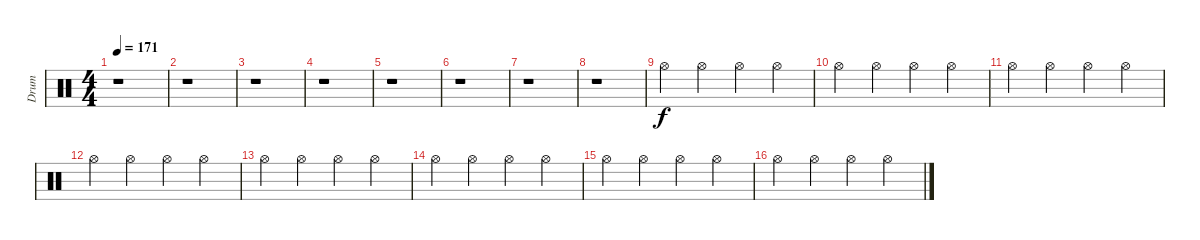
\track ("Drum" "Drum") {instrument percussion}
\staff {score}
\articulation defaults
\ts (4 4)
\tempo 171
\clef neutral
\ks c
r.1{dy f} |
r.1 |
r.1 |
r.1 |
r.1 |
r.1 |
r.1 |
r.1 |
"Hi-Hat (open)".4 "Hi-Hat (open)".4 "Hi-Hat (open)".4 "Hi-Hat (open)".4 |
"Hi-Hat (open)".4 "Hi-Hat (open)".4 "Hi-Hat (open)".4 "Hi-Hat (open)".4 |
"Hi-Hat (open)".4 "Hi-Hat (open)".4 "Hi-Hat (open)".4 "Hi-Hat (open)".4 |
"Hi-Hat (open)".4 "Hi-Hat (open)".4 "Hi-Hat (open)".4 "Hi-Hat (open)".4 |
"Hi-Hat (open)".4 "Hi-Hat (open)".4 "Hi-Hat (open)".4 "Hi-Hat (open)".4 |
"Hi-Hat (open)".4 "Hi-Hat (open)".4 "Hi-Hat (open)".4 "Hi-Hat (open)".4 |
"Hi-Hat (open)".4 "Hi-Hat (open)".4 "Hi-Hat (open)".4 "Hi-Hat (open)".4 |
"Hi-Hat (open)".4 "Hi-Hat (open)".4 "Hi-Hat (open)".4 "Hi-Hat (open)".4
